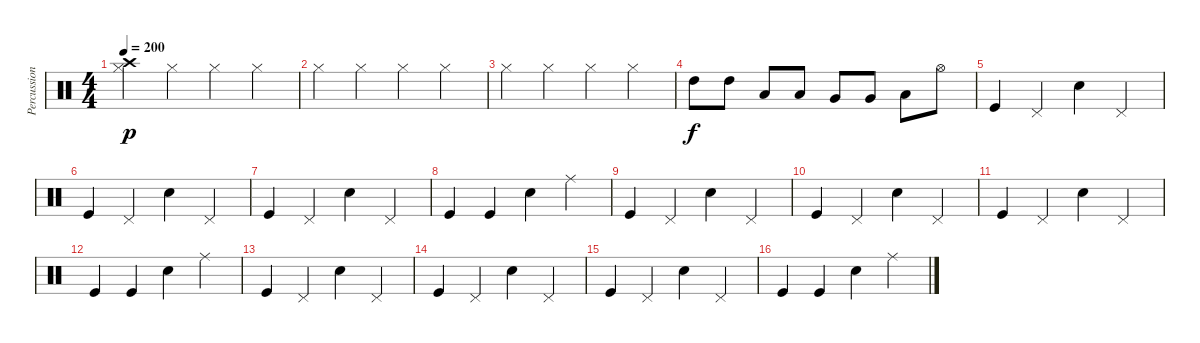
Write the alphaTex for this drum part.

\track ("Percussion" "Percussion") {instrument percussion}
\staff {score}
\articulation defaults
\ts (4 4)
\tempo 200
\clef neutral
\ks c
("Hi-Hat (closed)" "Crash high (hit)").4{dy p} "Hi-Hat (closed)".4 "Hi-Hat (closed)".4 "Hi-Hat (closed)".4 |
"Hi-Hat (closed)".4 "Hi-Hat (closed)".4 "Hi-Hat (closed)".4 "Hi-Hat (closed)".4 |
"Hi-Hat (closed)".4 "Hi-Hat (closed)".4 "Hi-Hat (closed)".4 "Hi-Hat (closed)".4 |
"High Tom (hit)".8{dy f} "High Tom (hit)".8 "Low Tom (hit)".8 "Low Tom (hit)".8 "Very Low Tom (hit)".8 "Very Low Tom (hit)".8 "Low Floor Tom (hit)".8 "Hi-Hat (open)".8 |
"Kick (hit)".4 "Pedal Hi-Hat (hit)".4 "Snare (hit) 2".4 "Pedal Hi-Hat (hit)".4 |
"Kick (hit)".4 "Pedal Hi-Hat (hit)".4 "Snare (hit) 2".4 "Pedal Hi-Hat (hit)".4 |
"Kick (hit)".4 "Pedal Hi-Hat (hit)".4 "Snare (hit) 2".4 "Pedal Hi-Hat (hit)".4 |
"Kick (hit)".4 "Kick (hit)".4 "Snare (hit) 2".4 "Ride (middle)".4 |
"Kick (hit)".4 "Pedal Hi-Hat (hit)".4 "Snare (hit) 2".4 "Pedal Hi-Hat (hit)".4 |
"Kick (hit)".4 "Pedal Hi-Hat (hit)".4 "Snare (hit) 2".4 "Pedal Hi-Hat (hit)".4 |
"Kick (hit)".4 "Pedal Hi-Hat (hit)".4 "Snare (hit) 2".4 "Pedal Hi-Hat (hit)".4 |
"Kick (hit)".4 "Kick (hit)".4 "Snare (hit) 2".4 "Ride (middle)".4 |
"Kick (hit)".4 "Pedal Hi-Hat (hit)".4 "Snare (hit) 2".4 "Pedal Hi-Hat (hit)".4 |
"Kick (hit)".4 "Pedal Hi-Hat (hit)".4 "Snare (hit) 2".4 "Pedal Hi-Hat (hit)".4 |
"Kick (hit)".4 "Pedal Hi-Hat (hit)".4 "Snare (hit) 2".4 "Pedal Hi-Hat (hit)".4 |
"Kick (hit)".4 "Kick (hit)".4 "Snare (hit) 2".4 "Ride (middle)".4
